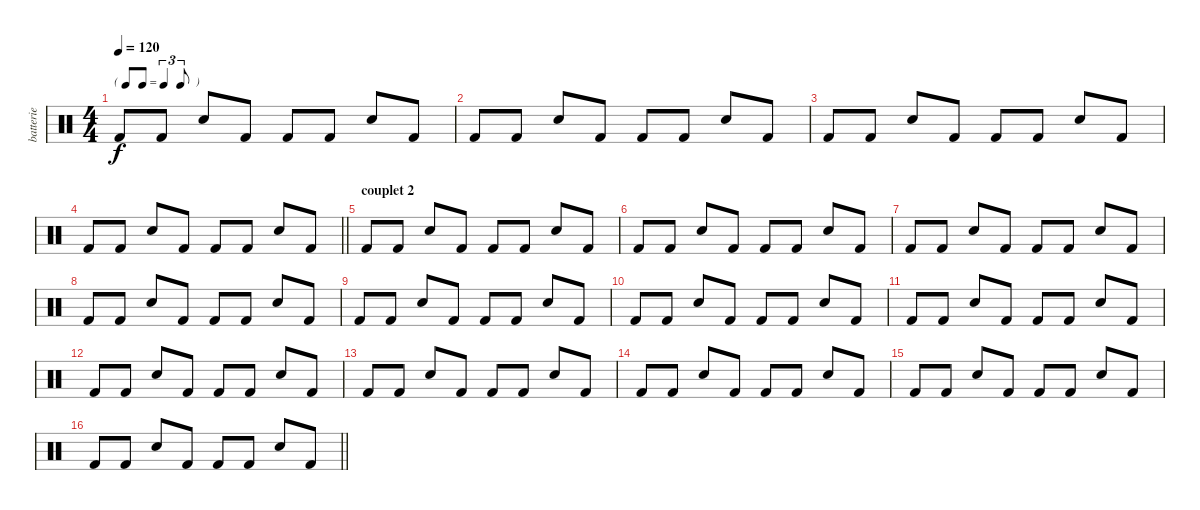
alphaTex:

\track ("batterie" "batterie") {instrument percussion}
\staff {score}
\articulation defaults
\ts (4 4)
\tf triplet8th
\tempo 120
\clef neutral
\ks c "Kick (hit) 2".8{dy f} "Kick (hit) 2".8 "Snare (hit) 2".8 "Kick (hit) 2".8 "Kick (hit) 2".8 "Kick (hit) 2".8 "Snare (hit) 2".8 "Kick (hit) 2".8
|
"Kick (hit) 2".8 "Kick (hit) 2".8 "Snare (hit) 2".8 "Kick (hit) 2".8 "Kick (hit) 2".8 "Kick (hit) 2".8 "Snare (hit) 2".8 "Kick (hit) 2".8 |
"Kick (hit) 2".8 "Kick (hit) 2".8 "Snare (hit) 2".8 "Kick (hit) 2".8 "Kick (hit) 2".8 "Kick (hit) 2".8 "Snare (hit) 2".8 "Kick (hit) 2".8 |
\barLineRight lightlight "Kick (hit) 2".8 "Kick (hit) 2".8 "Snare (hit) 2".8 "Kick (hit) 2".8 "Kick (hit) 2".8 "Kick (hit) 2".8 "Snare (hit) 2".8 "Kick (hit) 2".8
|
\section ("" "couplet 2")
"Kick (hit) 2".8 "Kick (hit) 2".8 "Snare (hit) 2".8 "Kick (hit) 2".8 "Kick (hit) 2".8 "Kick (hit) 2".8 "Snare (hit) 2".8 "Kick (hit) 2".8 |
"Kick (hit) 2".8 "Kick (hit) 2".8 "Snare (hit) 2".8 "Kick (hit) 2".8 "Kick (hit) 2".8 "Kick (hit) 2".8 "Snare (hit) 2".8 "Kick (hit) 2".8 |
"Kick (hit) 2".8 "Kick (hit) 2".8 "Snare (hit) 2".8 "Kick (hit) 2".8 "Kick (hit) 2".8 "Kick (hit) 2".8 "Snare (hit) 2".8 "Kick (hit) 2".8 |
"Kick (hit) 2".8 "Kick (hit) 2".8 "Snare (hit) 2".8 "Kick (hit) 2".8 "Kick (hit) 2".8 "Kick (hit) 2".8 "Snare (hit) 2".8 "Kick (hit) 2".8 |
"Kick (hit) 2".8 "Kick (hit) 2".8 "Snare (hit) 2".8 "Kick (hit) 2".8 "Kick (hit) 2".8 "Kick (hit) 2".8 "Snare (hit) 2".8 "Kick (hit) 2".8 |
"Kick (hit) 2".8 "Kick (hit) 2".8 "Snare (hit) 2".8 "Kick (hit) 2".8 "Kick (hit) 2".8 "Kick (hit) 2".8 "Snare (hit) 2".8 "Kick (hit) 2".8 |
"Kick (hit) 2".8 "Kick (hit) 2".8 "Snare (hit) 2".8 "Kick (hit) 2".8 "Kick (hit) 2".8 "Kick (hit) 2".8 "Snare (hit) 2".8 "Kick (hit) 2".8 |
"Kick (hit) 2".8 "Kick (hit) 2".8 "Snare (hit) 2".8 "Kick (hit) 2".8 "Kick (hit) 2".8 "Kick (hit) 2".8 "Snare (hit) 2".8 "Kick (hit) 2".8 |
"Kick (hit) 2".8 "Kick (hit) 2".8 "Snare (hit) 2".8 "Kick (hit) 2".8 "Kick (hit) 2".8 "Kick (hit) 2".8 "Snare (hit) 2".8 "Kick (hit) 2".8 |
"Kick (hit) 2".8 "Kick (hit) 2".8 "Snare (hit) 2".8 "Kick (hit) 2".8 "Kick (hit) 2".8 "Kick (hit) 2".8 "Snare (hit) 2".8 "Kick (hit) 2".8 |
"Kick (hit) 2".8 "Kick (hit) 2".8 "Snare (hit) 2".8 "Kick (hit) 2".8 "Kick (hit) 2".8 "Kick (hit) 2".8 "Snare (hit) 2".8 "Kick (hit) 2".8 |
\barLineRight lightlight "Kick (hit) 2".8 "Kick (hit) 2".8 "Snare (hit) 2".8 "Kick (hit) 2".8 "Kick (hit) 2".8 "Kick (hit) 2".8 "Snare (hit) 2".8 "Kick (hit) 2".8
